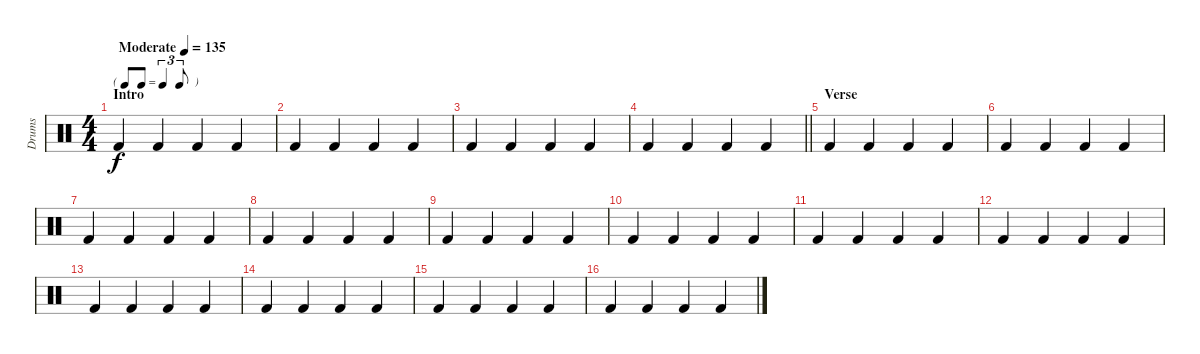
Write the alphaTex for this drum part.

\track ("Drums" "Drums") {instrument percussion}
\staff {score}
\articulation defaults
\ts (4 4)
\tf triplet8th
\section ("" "Intro")
\tempo (135 "Moderate")
\clef neutral
\ks c "Kick (hit) 2".4{dy f} "Kick (hit) 2".4 "Kick (hit) 2".4 "Kick (hit) 2".4
|
"Kick (hit) 2".4 "Kick (hit) 2".4 "Kick (hit) 2".4 "Kick (hit) 2".4 |
"Kick (hit) 2".4 "Kick (hit) 2".4 "Kick (hit) 2".4 "Kick (hit) 2".4 |
\barLineRight lightlight "Kick (hit) 2".4 "Kick (hit) 2".4 "Kick (hit) 2".4 "Kick (hit) 2".4
|
\section ("" "Verse")
"Kick (hit) 2".4 "Kick (hit) 2".4 "Kick (hit) 2".4 "Kick (hit) 2".4 |
"Kick (hit) 2".4 "Kick (hit) 2".4 "Kick (hit) 2".4 "Kick (hit) 2".4 |
"Kick (hit) 2".4 "Kick (hit) 2".4 "Kick (hit) 2".4 "Kick (hit) 2".4 |
"Kick (hit) 2".4 "Kick (hit) 2".4 "Kick (hit) 2".4 "Kick (hit) 2".4 |
"Kick (hit) 2".4 "Kick (hit) 2".4 "Kick (hit) 2".4 "Kick (hit) 2".4 |
"Kick (hit) 2".4 "Kick (hit) 2".4 "Kick (hit) 2".4 "Kick (hit) 2".4 |
"Kick (hit) 2".4 "Kick (hit) 2".4 "Kick (hit) 2".4 "Kick (hit) 2".4 |
"Kick (hit) 2".4 "Kick (hit) 2".4 "Kick (hit) 2".4 "Kick (hit) 2".4 |
"Kick (hit) 2".4 "Kick (hit) 2".4 "Kick (hit) 2".4 "Kick (hit) 2".4 |
"Kick (hit) 2".4 "Kick (hit) 2".4 "Kick (hit) 2".4 "Kick (hit) 2".4 |
"Kick (hit) 2".4 "Kick (hit) 2".4 "Kick (hit) 2".4 "Kick (hit) 2".4 |
"Kick (hit) 2".4 "Kick (hit) 2".4 "Kick (hit) 2".4 "Kick (hit) 2".4
